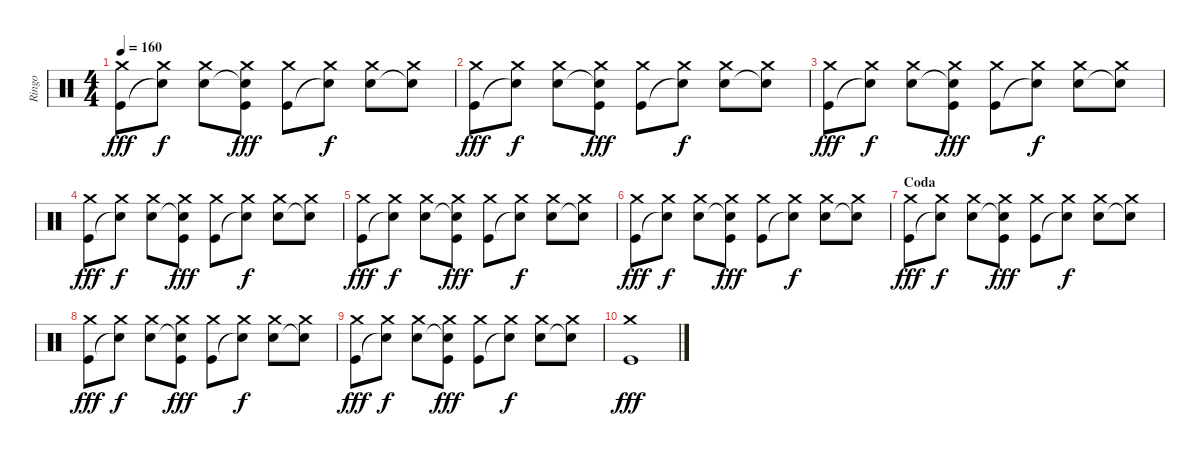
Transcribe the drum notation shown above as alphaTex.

\track ("Ringo" "Ringo") {instrument percussion}
\staff {score}
\articulation defaults
\ts (4 4)
\tempo 160
\clef neutral
\ks c
("Crash medium (hit)" "Kick (hit)").8{dy fff} ("Crash medium (hit)" "Snare (hit)"{t}).8{dy f} ("Crash medium (hit)" "Snare (hit) 2").8 ("Crash medium (hit)" "Snare (hit)"{t} "Kick (hit)").8{dy fff} ("Crash medium (hit)" "Kick (hit)").8 ("Crash medium (hit)" "Snare (hit)"{t}).8{dy f} ("Crash medium (hit)" "Snare (hit) 2").8 ("Crash medium (hit)" "Snare (hit)"{t}).8 |
("Crash medium (hit)" "Kick (hit)").8{dy fff} ("Crash medium (hit)" "Snare (hit)"{t}).8{dy f} ("Crash medium (hit)" "Snare (hit) 2").8 ("Crash medium (hit)" "Snare (hit)"{t} "Kick (hit)").8{dy fff} ("Crash medium (hit)" "Kick (hit)").8 ("Crash medium (hit)" "Snare (hit)"{t}).8{dy f} ("Crash medium (hit)" "Snare (hit) 2").8 ("Crash medium (hit)" "Snare (hit)"{t}).8 |
("Crash medium (hit)" "Kick (hit)").8{dy fff} ("Crash medium (hit)" "Snare (hit)"{t}).8{dy f} ("Crash medium (hit)" "Snare (hit) 2").8 ("Crash medium (hit)" "Snare (hit)"{t} "Kick (hit)").8{dy fff} ("Crash medium (hit)" "Kick (hit)").8 ("Crash medium (hit)" "Snare (hit)"{t}).8{dy f} ("Crash medium (hit)" "Snare (hit) 2").8 ("Crash medium (hit)" "Snare (hit)"{t}).8 |
("Crash medium (hit)" "Kick (hit)").8{dy fff} ("Crash medium (hit)" "Snare (hit)"{t}).8{dy f} ("Crash medium (hit)" "Snare (hit) 2").8 ("Crash medium (hit)" "Snare (hit)"{t} "Kick (hit)").8{dy fff} ("Crash medium (hit)" "Kick (hit)").8 ("Crash medium (hit)" "Snare (hit)"{t}).8{dy f} ("Crash medium (hit)" "Snare (hit) 2").8 ("Crash medium (hit)" "Snare (hit)"{t}).8 |
("Crash medium (hit)" "Kick (hit)").8{dy fff} ("Crash medium (hit)" "Snare (hit)"{t}).8{dy f} ("Crash medium (hit)" "Snare (hit) 2").8 ("Crash medium (hit)" "Snare (hit)"{t} "Kick (hit)").8{dy fff} ("Crash medium (hit)" "Kick (hit)").8 ("Crash medium (hit)" "Snare (hit)"{t}).8{dy f} ("Crash medium (hit)" "Snare (hit) 2").8 ("Crash medium (hit)" "Snare (hit)"{t}).8 |
("Crash medium (hit)" "Kick (hit)").8{dy fff} ("Crash medium (hit)" "Snare (hit)"{t}).8{dy f} ("Crash medium (hit)" "Snare (hit) 2").8 ("Crash medium (hit)" "Snare (hit)"{t} "Kick (hit)").8{dy fff} ("Crash medium (hit)" "Kick (hit)").8 ("Crash medium (hit)" "Snare (hit)"{t}).8{dy f} ("Crash medium (hit)" "Snare (hit) 2").8 ("Crash medium (hit)" "Snare (hit)"{t}).8 |
\section ("" "Coda")
("Crash medium (hit)" "Kick (hit)").8{dy fff} ("Crash medium (hit)" "Snare (hit)"{t}).8{dy f} ("Crash medium (hit)" "Snare (hit) 2").8 ("Crash medium (hit)" "Snare (hit)"{t} "Kick (hit)").8{dy fff} ("Crash medium (hit)" "Kick (hit)").8 ("Crash medium (hit)" "Snare (hit)"{t}).8{dy f} ("Crash medium (hit)" "Snare (hit) 2").8 ("Crash medium (hit)" "Snare (hit)"{t}).8 |
("Crash medium (hit)" "Kick (hit)").8{dy fff} ("Crash medium (hit)" "Snare (hit)"{t}).8{dy f} ("Crash medium (hit)" "Snare (hit) 2").8 ("Crash medium (hit)" "Snare (hit)"{t} "Kick (hit)").8{dy fff} ("Crash medium (hit)" "Kick (hit)").8 ("Crash medium (hit)" "Snare (hit)"{t}).8{dy f} ("Crash medium (hit)" "Snare (hit) 2").8 ("Crash medium (hit)" "Snare (hit)"{t}).8 |
("Crash medium (hit)" "Kick (hit)").8{dy fff} ("Crash medium (hit)" "Snare (hit)"{t}).8{dy f} ("Crash medium (hit)" "Snare (hit) 2").8 ("Crash medium (hit)" "Snare (hit)"{t} "Kick (hit)").8{dy fff} ("Crash medium (hit)" "Kick (hit)").8 ("Crash medium (hit)" "Snare (hit)"{t}).8{dy f} ("Crash medium (hit)" "Snare (hit) 2").8 ("Crash medium (hit)" "Snare (hit)"{t}).8 |
("Crash medium (hit)" "Kick (hit)").1{dy fff}
